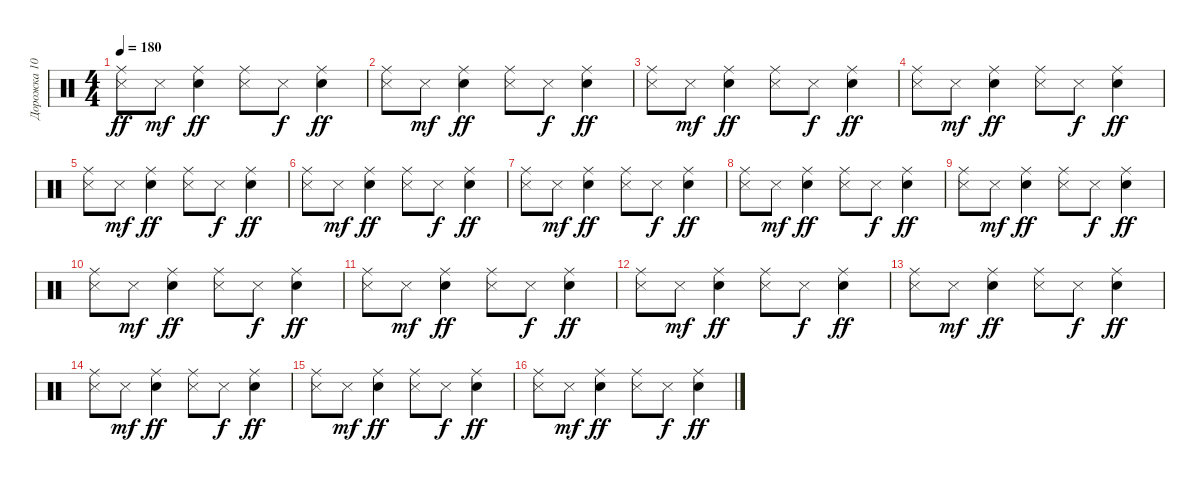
\track ("Дорожка 10" "Дорожка 10") {instrument percussion}
\staff {score}
\articulation defaults
\ts (4 4)
\tempo 180
\clef neutral
\ks c
("Metronome (hit)" "Ride (middle)").8{dy ff} "Metronome (hit)".8{dy mf} ("Snare (hit) 2" "Ride (middle)").4{dy ff} ("Metronome (hit)" "Ride (middle)").8 "Metronome (hit)".8{dy f} ("Snare (hit) 2" "Ride (middle)").4{dy ff} |
("Metronome (hit)" "Ride (middle)").8 "Metronome (hit)".8{dy mf} ("Snare (hit) 2" "Ride (middle)").4{dy ff} ("Metronome (hit)" "Ride (middle)").8 "Metronome (hit)".8{dy f} ("Snare (hit) 2" "Ride (middle)").4{dy ff} |
("Metronome (hit)" "Ride (middle)").8 "Metronome (hit)".8{dy mf} ("Snare (hit) 2" "Ride (middle)").4{dy ff} ("Metronome (hit)" "Ride (middle)").8 "Metronome (hit)".8{dy f} ("Snare (hit) 2" "Ride (middle)").4{dy ff} |
("Metronome (hit)" "Ride (middle)").8 "Metronome (hit)".8{dy mf} ("Snare (hit) 2" "Ride (middle)").4{dy ff} ("Metronome (hit)" "Ride (middle)").8 "Metronome (hit)".8{dy f} ("Snare (hit) 2" "Ride (middle)").4{dy ff} |
("Metronome (hit)" "Ride (middle)").8 "Metronome (hit)".8{dy mf} ("Snare (hit) 2" "Ride (middle)").4{dy ff} ("Metronome (hit)" "Ride (middle)").8 "Metronome (hit)".8{dy f} ("Snare (hit) 2" "Ride (middle)").4{dy ff} |
("Metronome (hit)" "Ride (middle)").8 "Metronome (hit)".8{dy mf} ("Snare (hit) 2" "Ride (middle)").4{dy ff} ("Metronome (hit)" "Ride (middle)").8 "Metronome (hit)".8{dy f} ("Snare (hit) 2" "Ride (middle)").4{dy ff} |
("Metronome (hit)" "Ride (middle)").8 "Metronome (hit)".8{dy mf} ("Snare (hit) 2" "Ride (middle)").4{dy ff} ("Metronome (hit)" "Ride (middle)").8 "Metronome (hit)".8{dy f} ("Snare (hit) 2" "Ride (middle)").4{dy ff} |
("Metronome (hit)" "Ride (middle)").8 "Metronome (hit)".8{dy mf} ("Snare (hit) 2" "Ride (middle)").4{dy ff} ("Metronome (hit)" "Ride (middle)").8 "Metronome (hit)".8{dy f} ("Snare (hit) 2" "Ride (middle)").4{dy ff} |
("Metronome (hit)" "Ride (middle)").8 "Metronome (hit)".8{dy mf} ("Snare (hit) 2" "Ride (middle)").4{dy ff} ("Metronome (hit)" "Ride (middle)").8 "Metronome (hit)".8{dy f} ("Snare (hit) 2" "Ride (middle)").4{dy ff} |
("Metronome (hit)" "Ride (middle)").8 "Metronome (hit)".8{dy mf} ("Snare (hit) 2" "Ride (middle)").4{dy ff} ("Metronome (hit)" "Ride (middle)").8 "Metronome (hit)".8{dy f} ("Snare (hit) 2" "Ride (middle)").4{dy ff} |
("Metronome (hit)" "Ride (middle)").8 "Metronome (hit)".8{dy mf} ("Snare (hit) 2" "Ride (middle)").4{dy ff} ("Metronome (hit)" "Ride (middle)").8 "Metronome (hit)".8{dy f} ("Snare (hit) 2" "Ride (middle)").4{dy ff} |
("Metronome (hit)" "Ride (middle)").8 "Metronome (hit)".8{dy mf} ("Snare (hit) 2" "Ride (middle)").4{dy ff} ("Metronome (hit)" "Ride (middle)").8 "Metronome (hit)".8{dy f} ("Snare (hit) 2" "Ride (middle)").4{dy ff} |
("Metronome (hit)" "Ride (middle)").8 "Metronome (hit)".8{dy mf} ("Snare (hit) 2" "Ride (middle)").4{dy ff} ("Metronome (hit)" "Ride (middle)").8 "Metronome (hit)".8{dy f} ("Snare (hit) 2" "Ride (middle)").4{dy ff} |
("Metronome (hit)" "Ride (middle)").8 "Metronome (hit)".8{dy mf} ("Snare (hit) 2" "Ride (middle)").4{dy ff} ("Metronome (hit)" "Ride (middle)").8 "Metronome (hit)".8{dy f} ("Snare (hit) 2" "Ride (middle)").4{dy ff} |
("Metronome (hit)" "Ride (middle)").8 "Metronome (hit)".8{dy mf} ("Snare (hit) 2" "Ride (middle)").4{dy ff} ("Metronome (hit)" "Ride (middle)").8 "Metronome (hit)".8{dy f} ("Snare (hit) 2" "Ride (middle)").4{dy ff} |
("Metronome (hit)" "Ride (middle)").8 "Metronome (hit)".8{dy mf} ("Snare (hit) 2" "Ride (middle)").4{dy ff} ("Metronome (hit)" "Ride (middle)").8 "Metronome (hit)".8{dy f} ("Snare (hit) 2" "Ride (middle)").4{dy ff}
